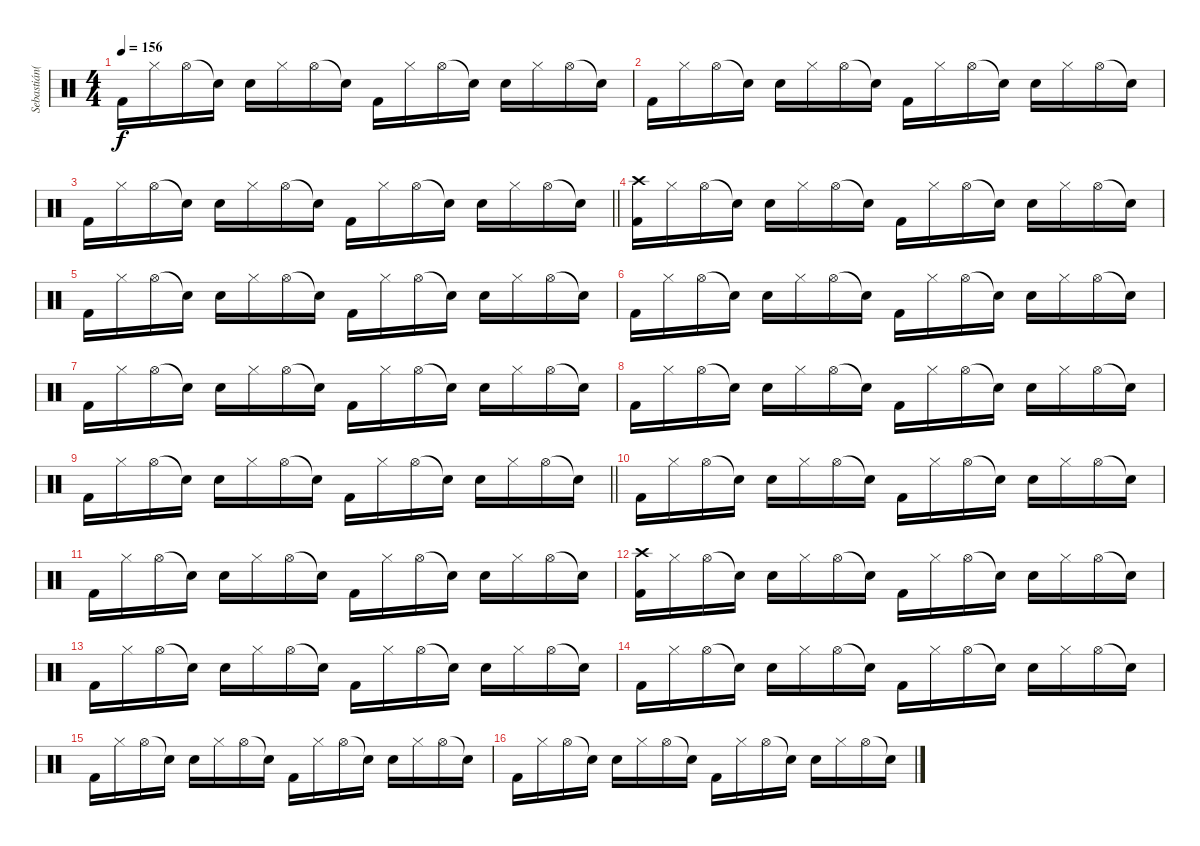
\track ("Sebastián(Percusión)" "Sebastián(") {instrument percussion}
\staff {score}
\articulation defaults
\ts (4 4)
\tempo 156
\clef neutral
\ks c "Kick (hit) 2".16{dy f} "Hi-Hat (closed)".16 "Hi-Hat (open)".16 "Snare (hit)"{t}.16 "Electric Snare (hit)".16 "Hi-Hat (closed)".16 "Hi-Hat (open)".16 "Snare (hit)"{t}.16 "Kick (hit) 2".16 "Hi-Hat (closed)".16 "Hi-Hat (open)".16 "Snare (hit)"{t}.16 "Electric Snare (hit)".16 "Hi-Hat (closed)".16 "Hi-Hat (open)".16 "Snare (hit)"{t}.16
|
"Kick (hit) 2".16 "Hi-Hat (closed)".16 "Hi-Hat (open)".16 "Snare (hit)"{t}.16 "Electric Snare (hit)".16 "Hi-Hat (closed)".16 "Hi-Hat (open)".16 "Snare (hit)"{t}.16 "Kick (hit) 2".16 "Hi-Hat (closed)".16 "Hi-Hat (open)".16 "Snare (hit)"{t}.16 "Electric Snare (hit)".16 "Hi-Hat (closed)".16 "Hi-Hat (open)".16 "Snare (hit)"{t}.16 |
\barLineRight lightlight "Kick (hit) 2".16 "Hi-Hat (closed)".16 "Hi-Hat (open)".16 "Snare (hit)"{t}.16 "Electric Snare (hit)".16 "Hi-Hat (closed)".16 "Hi-Hat (open)".16 "Snare (hit)"{t}.16 "Kick (hit) 2".16 "Hi-Hat (closed)".16 "Hi-Hat (open)".16 "Snare (hit)"{t}.16 "Electric Snare (hit)".16 "Hi-Hat (closed)".16 "Hi-Hat (open)".16 "Snare (hit)"{t}.16
|
\section ("" "")
("Crash high (hit)" "Kick (hit) 2").16 "Hi-Hat (closed)".16 "Hi-Hat (open)".16 "Snare (hit)"{t}.16 "Electric Snare (hit)".16 "Hi-Hat (closed)".16 "Hi-Hat (open)".16 "Snare (hit)"{t}.16 "Kick (hit) 2".16 "Hi-Hat (closed)".16 "Hi-Hat (open)".16 "Snare (hit)"{t}.16 "Electric Snare (hit)".16 "Hi-Hat (closed)".16 "Hi-Hat (open)".16 "Snare (hit)"{t}.16 |
"Kick (hit) 2".16 "Hi-Hat (closed)".16 "Hi-Hat (open)".16 "Snare (hit)"{t}.16 "Electric Snare (hit)".16 "Hi-Hat (closed)".16 "Hi-Hat (open)".16 "Snare (hit)"{t}.16 "Kick (hit) 2".16 "Hi-Hat (closed)".16 "Hi-Hat (open)".16 "Snare (hit)"{t}.16 "Electric Snare (hit)".16 "Hi-Hat (closed)".16 "Hi-Hat (open)".16 "Snare (hit)"{t}.16 |
"Kick (hit) 2".16 "Hi-Hat (closed)".16 "Hi-Hat (open)".16 "Snare (hit)"{t}.16 "Electric Snare (hit)".16 "Hi-Hat (closed)".16 "Hi-Hat (open)".16 "Snare (hit)"{t}.16 "Kick (hit) 2".16 "Hi-Hat (closed)".16 "Hi-Hat (open)".16 "Snare (hit)"{t}.16 "Electric Snare (hit)".16 "Hi-Hat (closed)".16 "Hi-Hat (open)".16 "Snare (hit)"{t}.16 |
"Kick (hit) 2".16 "Hi-Hat (closed)".16 "Hi-Hat (open)".16 "Snare (hit)"{t}.16 "Electric Snare (hit)".16 "Hi-Hat (closed)".16 "Hi-Hat (open)".16 "Snare (hit)"{t}.16 "Kick (hit) 2".16 "Hi-Hat (closed)".16 "Hi-Hat (open)".16 "Snare (hit)"{t}.16 "Electric Snare (hit)".16 "Hi-Hat (closed)".16 "Hi-Hat (open)".16 "Snare (hit)"{t}.16 |
"Kick (hit) 2".16 "Hi-Hat (closed)".16 "Hi-Hat (open)".16 "Snare (hit)"{t}.16 "Electric Snare (hit)".16 "Hi-Hat (closed)".16 "Hi-Hat (open)".16 "Snare (hit)"{t}.16 "Kick (hit) 2".16 "Hi-Hat (closed)".16 "Hi-Hat (open)".16 "Snare (hit)"{t}.16 "Electric Snare (hit)".16 "Hi-Hat (closed)".16 "Hi-Hat (open)".16 "Snare (hit)"{t}.16 |
\barLineRight lightlight "Kick (hit) 2".16 "Hi-Hat (closed)".16 "Hi-Hat (open)".16 "Snare (hit)"{t}.16 "Electric Snare (hit)".16 "Hi-Hat (closed)".16 "Hi-Hat (open)".16 "Snare (hit)"{t}.16 "Kick (hit) 2".16 "Hi-Hat (closed)".16 "Hi-Hat (open)".16 "Snare (hit)"{t}.16 "Electric Snare (hit)".16 "Hi-Hat (closed)".16 "Hi-Hat (open)".16 "Snare (hit)"{t}.16
|
"Kick (hit) 2".16 "Hi-Hat (closed)".16 "Hi-Hat (open)".16 "Snare (hit)"{t}.16 "Electric Snare (hit)".16 "Hi-Hat (closed)".16 "Hi-Hat (open)".16 "Snare (hit)"{t}.16 "Kick (hit) 2".16 "Hi-Hat (closed)".16 "Hi-Hat (open)".16 "Snare (hit)"{t}.16 "Electric Snare (hit)".16 "Hi-Hat (closed)".16 "Hi-Hat (open)".16 "Snare (hit)"{t}.16 |
"Kick (hit) 2".16 "Hi-Hat (closed)".16 "Hi-Hat (open)".16 "Snare (hit)"{t}.16 "Electric Snare (hit)".16 "Hi-Hat (closed)".16 "Hi-Hat (open)".16 "Snare (hit)"{t}.16 "Kick (hit) 2".16 "Hi-Hat (closed)".16 "Hi-Hat (open)".16 "Snare (hit)"{t}.16 "Electric Snare (hit)".16 "Hi-Hat (closed)".16 "Hi-Hat (open)".16 "Snare (hit)"{t}.16 |
\section ("" "")
("Crash high (hit)" "Kick (hit) 2").16 "Hi-Hat (closed)".16 "Hi-Hat (open)".16 "Snare (hit)"{t}.16 "Electric Snare (hit)".16 "Hi-Hat (closed)".16 "Hi-Hat (open)".16 "Snare (hit)"{t}.16 "Kick (hit) 2".16 "Hi-Hat (closed)".16 "Hi-Hat (open)".16 "Snare (hit)"{t}.16 "Electric Snare (hit)".16 "Hi-Hat (closed)".16 "Hi-Hat (open)".16 "Snare (hit)"{t}.16 |
"Kick (hit) 2".16 "Hi-Hat (closed)".16 "Hi-Hat (open)".16 "Snare (hit)"{t}.16 "Electric Snare (hit)".16 "Hi-Hat (closed)".16 "Hi-Hat (open)".16 "Snare (hit)"{t}.16 "Kick (hit) 2".16 "Hi-Hat (closed)".16 "Hi-Hat (open)".16 "Snare (hit)"{t}.16 "Electric Snare (hit)".16 "Hi-Hat (closed)".16 "Hi-Hat (open)".16 "Snare (hit)"{t}.16 |
"Kick (hit) 2".16 "Hi-Hat (closed)".16 "Hi-Hat (open)".16 "Snare (hit)"{t}.16 "Electric Snare (hit)".16 "Hi-Hat (closed)".16 "Hi-Hat (open)".16 "Snare (hit)"{t}.16 "Kick (hit) 2".16 "Hi-Hat (closed)".16 "Hi-Hat (open)".16 "Snare (hit)"{t}.16 "Electric Snare (hit)".16 "Hi-Hat (closed)".16 "Hi-Hat (open)".16 "Snare (hit)"{t}.16 |
"Kick (hit) 2".16 "Hi-Hat (closed)".16 "Hi-Hat (open)".16 "Snare (hit)"{t}.16 "Electric Snare (hit)".16 "Hi-Hat (closed)".16 "Hi-Hat (open)".16 "Snare (hit)"{t}.16 "Kick (hit) 2".16 "Hi-Hat (closed)".16 "Hi-Hat (open)".16 "Snare (hit)"{t}.16 "Electric Snare (hit)".16 "Hi-Hat (closed)".16 "Hi-Hat (open)".16 "Snare (hit)"{t}.16 |
"Kick (hit) 2".16 "Hi-Hat (closed)".16 "Hi-Hat (open)".16 "Snare (hit)"{t}.16 "Electric Snare (hit)".16 "Hi-Hat (closed)".16 "Hi-Hat (open)".16 "Snare (hit)"{t}.16 "Kick (hit) 2".16 "Hi-Hat (closed)".16 "Hi-Hat (open)".16 "Snare (hit)"{t}.16 "Electric Snare (hit)".16 "Hi-Hat (closed)".16 "Hi-Hat (open)".16 "Snare (hit)"{t}.16
